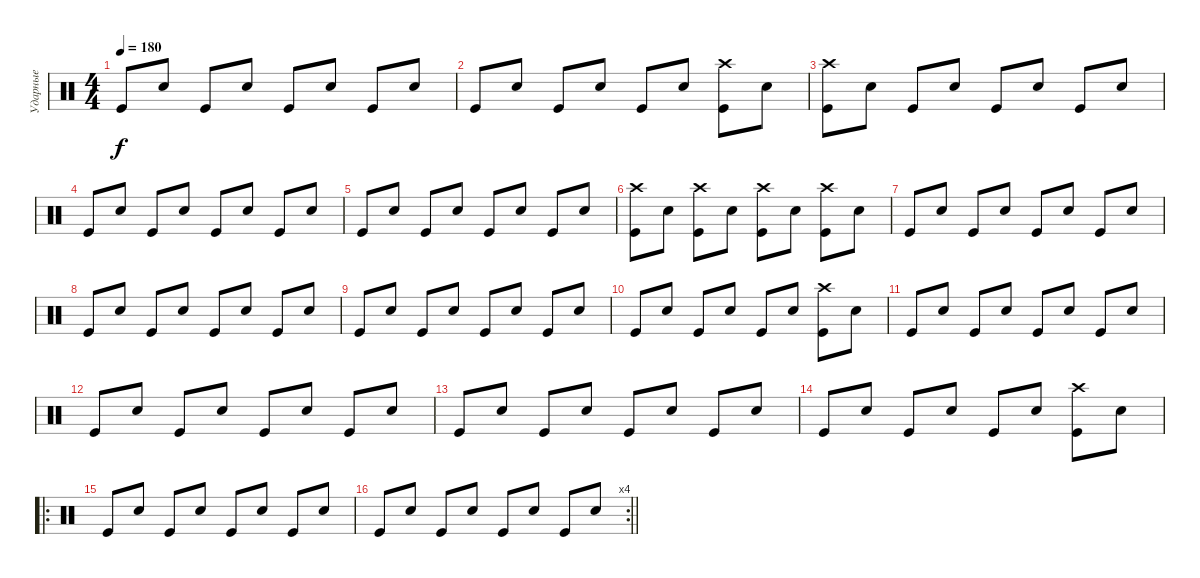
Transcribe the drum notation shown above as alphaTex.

\track ("Ударные" "Ударные") {instrument percussion}
\staff {score}
\articulation defaults
\ts (4 4)
\tempo 180
\clef neutral
\ks c "Kick (hit)".8{dy f} "Snare (hit) 2".8 "Kick (hit)".8 "Snare (hit) 2".8 "Kick (hit)".8 "Snare (hit) 2".8 "Kick (hit)".8 "Snare (hit) 2".8
|
"Kick (hit)".8 "Snare (hit) 2".8 "Kick (hit)".8 "Snare (hit) 2".8 "Kick (hit)".8 "Snare (hit) 2".8 ("Crash high (hit)" "Kick (hit)").8 "Snare (hit) 2".8 |
("Crash high (hit)" "Kick (hit)").8 "Snare (hit) 2".8 "Kick (hit)".8 "Snare (hit) 2".8 "Kick (hit)".8 "Snare (hit) 2".8 "Kick (hit)".8 "Snare (hit) 2".8 |
"Kick (hit)".8 "Snare (hit) 2".8 "Kick (hit)".8 "Snare (hit) 2".8 "Kick (hit)".8 "Snare (hit) 2".8 "Kick (hit)".8 "Snare (hit) 2".8 |
"Kick (hit)".8 "Snare (hit) 2".8 "Kick (hit)".8 "Snare (hit) 2".8 "Kick (hit)".8 "Snare (hit) 2".8 "Kick (hit)".8 "Snare (hit) 2".8 |
("Crash high (hit)" "Kick (hit)").8 "Snare (hit) 2".8 ("Crash high (hit)" "Kick (hit)").8 "Snare (hit) 2".8 ("Crash high (hit)" "Kick (hit)").8 "Snare (hit) 2".8 ("Crash high (hit)" "Kick (hit)").8 "Snare (hit) 2".8 |
"Kick (hit)".8 "Snare (hit) 2".8 "Kick (hit)".8 "Snare (hit) 2".8 "Kick (hit)".8 "Snare (hit) 2".8 "Kick (hit)".8 "Snare (hit) 2".8 |
"Kick (hit)".8 "Snare (hit) 2".8 "Kick (hit)".8 "Snare (hit) 2".8 "Kick (hit)".8 "Snare (hit) 2".8 "Kick (hit)".8 "Snare (hit) 2".8 |
"Kick (hit)".8 "Snare (hit) 2".8 "Kick (hit)".8 "Snare (hit) 2".8 "Kick (hit)".8 "Snare (hit) 2".8 "Kick (hit)".8 "Snare (hit) 2".8 |
"Kick (hit)".8 "Snare (hit) 2".8 "Kick (hit)".8 "Snare (hit) 2".8 "Kick (hit)".8 "Snare (hit) 2".8 ("Crash high (hit)" "Kick (hit)").8 "Snare (hit) 2".8 |
"Kick (hit)".8 "Snare (hit) 2".8 "Kick (hit)".8 "Snare (hit) 2".8 "Kick (hit)".8 "Snare (hit) 2".8 "Kick (hit)".8 "Snare (hit) 2".8 |
"Kick (hit)".8 "Snare (hit) 2".8 "Kick (hit)".8 "Snare (hit) 2".8 "Kick (hit)".8 "Snare (hit) 2".8 "Kick (hit)".8 "Snare (hit) 2".8 |
"Kick (hit)".8 "Snare (hit) 2".8 "Kick (hit)".8 "Snare (hit) 2".8 "Kick (hit)".8 "Snare (hit) 2".8 "Kick (hit)".8 "Snare (hit) 2".8 |
"Kick (hit)".8 "Snare (hit) 2".8 "Kick (hit)".8 "Snare (hit) 2".8 "Kick (hit)".8 "Snare (hit) 2".8 ("Crash high (hit)" "Kick (hit)").8 "Snare (hit) 2".8 |
\ro "Kick (hit)".8 "Snare (hit) 2".8 "Kick (hit)".8 "Snare (hit) 2".8 "Kick (hit)".8 "Snare (hit) 2".8 "Kick (hit)".8 "Snare (hit) 2".8
|
\rc 4
\barLineRight lightlight "Kick (hit)".8 "Snare (hit) 2".8 "Kick (hit)".8 "Snare (hit) 2".8 "Kick (hit)".8 "Snare (hit) 2".8 "Kick (hit)".8 "Snare (hit) 2".8
